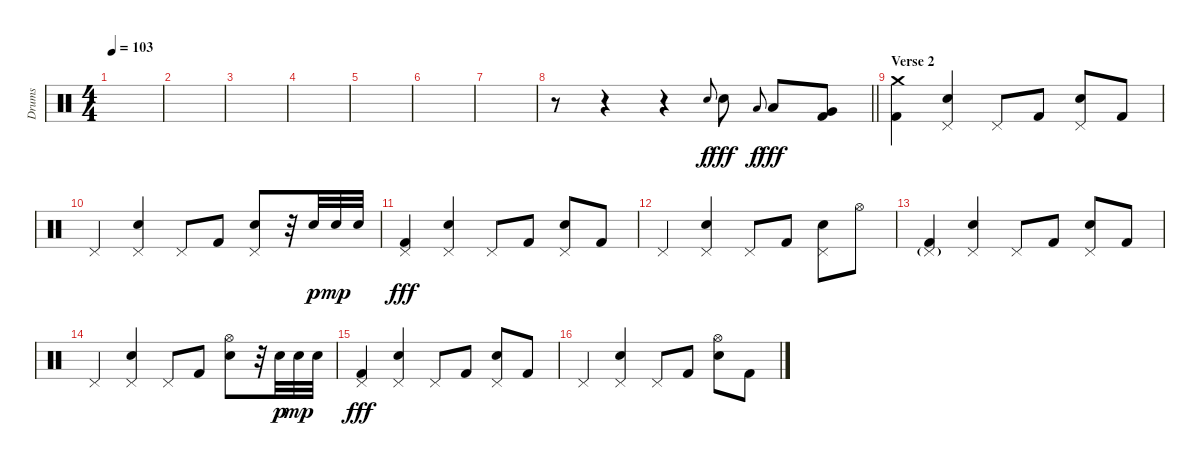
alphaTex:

\track ("Drums" "Drums") {instrument percussion}
\staff {score}
\articulation defaults
\ts (4 4)
\tempo 103
\clef neutral
\ks c
|
|
|
|
|
|
|
\barLineRight lightlight
r.8 r.4 r.4 "Snare (hit) 2".8{gr onbeat} "Snare (hit) 2".8{dy fff} "Low Tom (hit)".8{gr onbeat dy f} "Low Tom (hit)".8{dy fff} ("Very Low Tom (hit)" "Kick (hit) 2").8 |
\section ("" "Verse 2")
("Crash medium (hit)" "Kick (hit) 2").4 ("Pedal Hi-Hat (hit)" "Snare (hit) 2").4 "Pedal Hi-Hat (hit)".8 "Kick (hit) 2".8 ("Pedal Hi-Hat (hit)" "Snare (hit) 2").8 "Kick (hit) 2".8 |
"Pedal Hi-Hat (hit)".4 ("Pedal Hi-Hat (hit)" "Snare (hit) 2").4 "Pedal Hi-Hat (hit)".8 "Kick (hit) 2".8 ("Pedal Hi-Hat (hit)" "Snare (hit) 2").8 r.32 "Snare (hit) 2".32{dy p} "Snare (hit) 2".32{dy mp} "Snare (hit) 2".32 |
("Pedal Hi-Hat (hit)" "Kick (hit) 2").4{dy fff} ("Pedal Hi-Hat (hit)" "Snare (hit) 2").4 "Pedal Hi-Hat (hit)".8 "Kick (hit) 2".8 ("Pedal Hi-Hat (hit)" "Snare (hit) 2").8 "Kick (hit) 2".8 |
"Pedal Hi-Hat (hit)".4 ("Pedal Hi-Hat (hit)" "Snare (hit) 2").4 "Pedal Hi-Hat (hit)".8 "Kick (hit) 2".8 ("Pedal Hi-Hat (hit)" "Snare (hit) 2").8 "Hi-Hat (open)".8 |
("Pedal Hi-Hat (hit)"{g} "Kick (hit) 2").4 ("Pedal Hi-Hat (hit)" "Snare (hit) 2").4 "Pedal Hi-Hat (hit)".8 "Kick (hit) 2".8 ("Pedal Hi-Hat (hit)" "Snare (hit) 2").8 "Kick (hit) 2".8 |
"Pedal Hi-Hat (hit)".4 ("Pedal Hi-Hat (hit)" "Snare (hit) 2").4 "Pedal Hi-Hat (hit)".8 "Kick (hit) 2".8 ("Hi-Hat (open)" "Snare (hit) 2").8 r.32 "Snare (hit) 2".32{dy p} "Snare (hit) 2".32{dy mp} "Snare (hit) 2".32 |
("Pedal Hi-Hat (hit)" "Kick (hit) 2").4{dy fff} ("Pedal Hi-Hat (hit)" "Snare (hit) 2").4 "Pedal Hi-Hat (hit)".8 "Kick (hit) 2".8 ("Pedal Hi-Hat (hit)" "Snare (hit) 2").8 "Kick (hit) 2".8 |
"Pedal Hi-Hat (hit)".4 ("Pedal Hi-Hat (hit)" "Snare (hit) 2").4 "Pedal Hi-Hat (hit)".8 "Kick (hit) 2".8 ("Hi-Hat (open)" "Snare (hit) 2").8 "Kick (hit) 2".8
